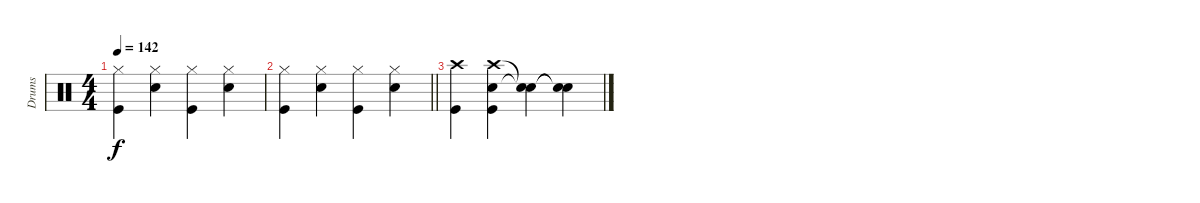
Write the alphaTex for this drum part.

\track ("Drums" "Drums") {instrument percussion}
\staff {score}
\articulation defaults
\ts (4 4)
\tempo 142
\clef neutral
\ks c
("Hi-Hat (closed)" "Kick (hit)").4{dy f} ("Hi-Hat (closed)" "Snare (hit) 2").4 ("Hi-Hat (closed)" "Kick (hit)").4 ("Hi-Hat (closed)" "Snare (hit) 2").4 |
\barLineRight lightlight
("Hi-Hat (closed)" "Kick (hit)").4 ("Hi-Hat (closed)" "Snare (hit) 2").4 ("Hi-Hat (closed)" "Kick (hit)").4 ("Hi-Hat (closed)" "Snare (hit) 2").4 |
("Crash high (hit)" "Kick (hit)").4 ("Crash high (hit)" "Snare (hit) 2" "Kick (hit)").4 ("Snare (hit)"{t} "Snare (hit)"{t}).4 ("Snare (hit)"{t} "Snare (hit)"{t}).4
